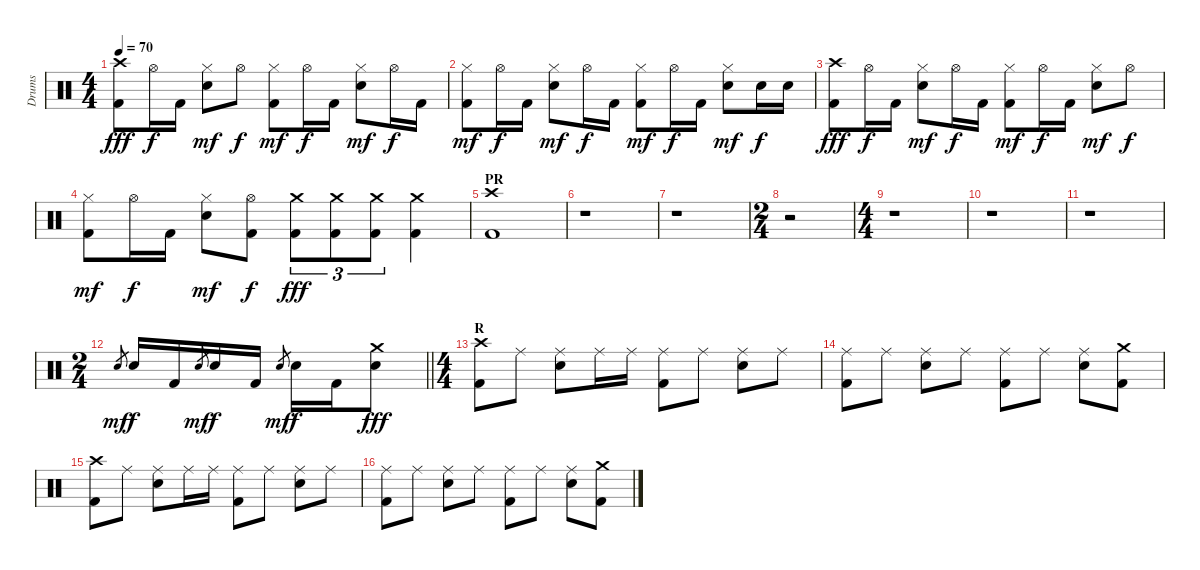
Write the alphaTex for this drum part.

\track ("Drums" "Drums") {instrument percussion}
\staff {score}
\articulation defaults
\ts (4 4)
\tempo 70
\clef neutral
\ks c
("Kick (hit) 2" "Crash high (hit)").8{dy fff} "Hi-Hat (open)".16{dy f} "Kick (hit) 2".16 ("Electric Snare (hit)" "Hi-Hat (closed)").8{dy mf} "Hi-Hat (open)".8{dy f} ("Kick (hit) 2" "Hi-Hat (closed)").8{dy mf} "Hi-Hat (open)".16{dy f} "Kick (hit) 2".16 ("Electric Snare (hit)" "Hi-Hat (closed)").8{dy mf} "Hi-Hat (open)".16{dy f} "Kick (hit) 2".16 |
("Kick (hit) 2" "Hi-Hat (closed)").8{dy mf} "Hi-Hat (open)".16{dy f} "Kick (hit) 2".16 ("Electric Snare (hit)" "Hi-Hat (closed)").8{dy mf} "Hi-Hat (open)".16{dy f} "Kick (hit) 2".16 ("Kick (hit) 2" "Hi-Hat (closed)").8{dy mf} "Hi-Hat (open)".16{dy f} "Kick (hit) 2".16 ("Electric Snare (hit)" "Hi-Hat (closed)").8{dy mf} "Electric Snare (hit)".16{dy f} "Electric Snare (hit)".16 |
("Kick (hit) 2" "Crash high (hit)").8{dy fff} "Hi-Hat (open)".16{dy f} "Kick (hit) 2".16 ("Electric Snare (hit)" "Hi-Hat (closed)").8{dy mf} "Hi-Hat (open)".16{dy f} "Kick (hit) 2".16 ("Kick (hit) 2" "Hi-Hat (closed)").8{dy mf} "Hi-Hat (open)".16{dy f} "Kick (hit) 2".16 ("Electric Snare (hit)" "Hi-Hat (closed)").8{dy mf} "Hi-Hat (open)".8{dy f} |
("Kick (hit) 2" "Hi-Hat (closed)").8{dy mf} "Hi-Hat (open)".16{dy f} "Kick (hit) 2".16 ("Electric Snare (hit)" "Hi-Hat (closed)").8{dy mf} ("Kick (hit) 2" "Hi-Hat (open)").8{dy f} ("Kick (hit) 2" "Crash medium (hit)").8{tu (3 2) dy fff} ("Kick (hit) 2" "Crash medium (hit)").8{tu (3 2)} ("Kick (hit) 2" "Crash medium (hit)").8{tu (3 2)} ("Kick (hit) 2" "Crash medium (hit)").4 |
\section ("" "PR")
("Kick (hit) 2" "Crash high (hit)").1 |
r.1 |
r.1 |
\ts (2 4)
r.2 |
\ts (4 4)
r.1 |
r.1 |
r.1 |
\ts (2 4)
\barLineRight lightlight "Electric Snare (hit)".8{gr dy mf} "Electric Snare (hit)".16{dy f} "Kick (hit) 2".16 "Electric Snare (hit)".8{gr dy mf} "Electric Snare (hit)".16{dy f} "Kick (hit) 2".16 "Electric Snare (hit)".8{gr dy mf} "Electric Snare (hit)".16{dy f} "Kick (hit) 2".16
("Electric Snare (hit)" "Crash medium (hit)").8{dy fff} |
\ts (4 4)
\section ("" "R")
("Kick (hit) 2" "Crash high (hit)").8 "Ride (middle)".8 ("Electric Snare (hit)" "Ride (middle)").8 "Ride (middle)".16 "Ride (middle)".16 ("Kick (hit) 2" "Ride (middle)").8 "Ride (middle)".8 ("Electric Snare (hit)" "Ride (middle)").8 "Ride (middle)".8 |
("Kick (hit) 2" "Ride (middle)").8 "Ride (middle)".8 ("Electric Snare (hit)" "Ride (middle)").8 "Ride (middle)".8 ("Kick (hit) 2" "Ride (middle)").8 "Ride (middle)".8 ("Electric Snare (hit)" "Ride (middle)").8 ("Kick (hit) 2" "Crash medium (hit)").8 |
("Kick (hit) 2" "Crash high (hit)").8 "Ride (middle)".8 ("Electric Snare (hit)" "Ride (middle)").8 "Ride (middle)".16 "Ride (middle)".16 ("Kick (hit) 2" "Ride (middle)").8 "Ride (middle)".8 ("Electric Snare (hit)" "Ride (middle)").8 "Ride (middle)".8 |
("Kick (hit) 2" "Ride (middle)").8 "Ride (middle)".8 ("Electric Snare (hit)" "Ride (middle)").8 "Ride (middle)".8 ("Kick (hit) 2" "Ride (middle)").8 "Ride (middle)".8 ("Electric Snare (hit)" "Ride (middle)").8 ("Kick (hit) 2" "Crash medium (hit)").8
